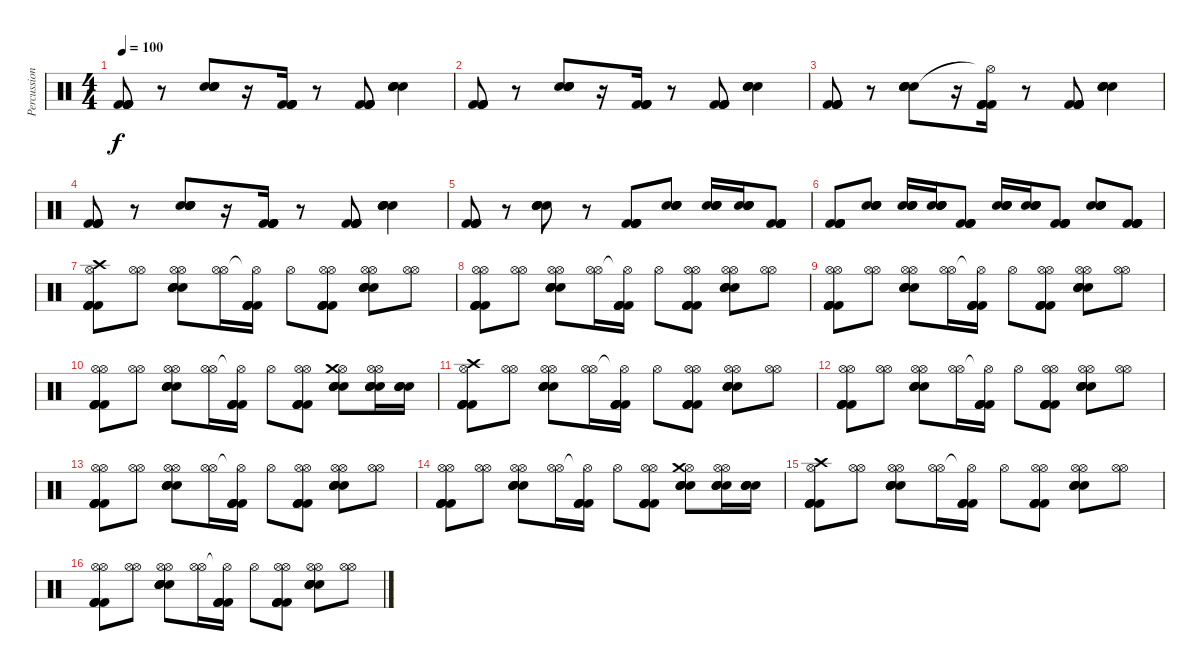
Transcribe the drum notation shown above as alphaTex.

\track ("Percussion" "Percussion") {instrument percussion}
\staff {score}
\articulation defaults
\ts (4 4)
\tempo 100
\clef neutral
\ks c
("Kick (hit) 2" "Kick (hit) 2" "Kick (hit) 2" "Kick (hit) 2").8{dy f} r.8 ("Electric Snare (hit)" "Electric Snare (hit)" "Electric Snare (hit)" "Electric Snare (hit)").8 r.16 ("Kick (hit) 2" "Kick (hit) 2" "Kick (hit) 2" "Kick (hit) 2").16 r.8 ("Kick (hit) 2" "Kick (hit) 2" "Kick (hit) 2" "Kick (hit) 2").8 ("Electric Snare (hit)" "Electric Snare (hit)" "Electric Snare (hit)" "Electric Snare (hit)").4 |
("Kick (hit) 2" "Kick (hit) 2" "Kick (hit) 2" "Kick (hit) 2").8 r.8 ("Electric Snare (hit)" "Electric Snare (hit)" "Electric Snare (hit)" "Electric Snare (hit)").8 r.16 ("Kick (hit) 2" "Kick (hit) 2" "Kick (hit) 2" "Kick (hit) 2").16 r.8 ("Kick (hit) 2" "Kick (hit) 2" "Kick (hit) 2" "Kick (hit) 2").8 ("Electric Snare (hit)" "Electric Snare (hit)" "Electric Snare (hit)" "Electric Snare (hit)").4 |
("Kick (hit) 2" "Kick (hit) 2" "Kick (hit) 2" "Kick (hit) 2").8 r.8 ("Electric Snare (hit)" "Electric Snare (hit)" "Electric Snare (hit)" "Electric Snare (hit)").8 r.16 ("Hi-Hat (open)"{t} "Kick (hit) 2" "Kick (hit) 2" "Kick (hit) 2" "Kick (hit) 2").16 r.8 ("Kick (hit) 2" "Kick (hit) 2" "Kick (hit) 2" "Kick (hit) 2").8 ("Electric Snare (hit)" "Electric Snare (hit)" "Electric Snare (hit)" "Electric Snare (hit)").4 |
("Kick (hit) 2" "Kick (hit) 2" "Kick (hit) 2" "Kick (hit) 2").8 r.8 ("Electric Snare (hit)" "Electric Snare (hit)" "Electric Snare (hit)" "Electric Snare (hit)").8 r.16 ("Kick (hit) 2" "Kick (hit) 2" "Kick (hit) 2" "Kick (hit) 2").16 r.8 ("Kick (hit) 2" "Kick (hit) 2" "Kick (hit) 2" "Kick (hit) 2").8 ("Electric Snare (hit)" "Electric Snare (hit)" "Electric Snare (hit)" "Electric Snare (hit)").4 |
("Kick (hit) 2" "Kick (hit) 2" "Kick (hit) 2" "Kick (hit) 2").8 r.8 ("Electric Snare (hit)" "Electric Snare (hit)" "Electric Snare (hit)" "Electric Snare (hit)").8 r.8 ("Kick (hit) 2" "Kick (hit) 2" "Kick (hit) 2" "Kick (hit) 2").8 ("Electric Snare (hit)" "Electric Snare (hit)" "Electric Snare (hit)" "Electric Snare (hit)").8 ("Electric Snare (hit)" "Electric Snare (hit)" "Electric Snare (hit)" "Electric Snare (hit)").16 ("Electric Snare (hit)" "Electric Snare (hit)" "Electric Snare (hit)" "Electric Snare (hit)").16 ("Kick (hit) 2" "Kick (hit) 2" "Kick (hit) 2" "Kick (hit) 2").8 |
("Kick (hit) 2" "Kick (hit) 2" "Kick (hit) 2" "Kick (hit) 2").8 ("Electric Snare (hit)" "Electric Snare (hit)" "Electric Snare (hit)" "Electric Snare (hit)").8 ("Electric Snare (hit)" "Electric Snare (hit)" "Electric Snare (hit)" "Electric Snare (hit)").16 ("Electric Snare (hit)" "Electric Snare (hit)" "Electric Snare (hit)" "Electric Snare (hit)").16 ("Kick (hit) 2" "Kick (hit) 2" "Kick (hit) 2" "Kick (hit) 2").8 ("Electric Snare (hit)" "Electric Snare (hit)" "Electric Snare (hit)" "Electric Snare (hit)").16 ("Electric Snare (hit)" "Electric Snare (hit)" "Electric Snare (hit)" "Electric Snare (hit)").16 ("Kick (hit) 2" "Kick (hit) 2" "Kick (hit) 2" "Kick (hit) 2").8 ("Electric Snare (hit)" "Electric Snare (hit)" "Electric Snare (hit)" "Electric Snare (hit)").8 ("Kick (hit) 2" "Kick (hit) 2" "Kick (hit) 2" "Kick (hit) 2").8 |
("Hi-Hat (open)" "Kick (hit) 2" "Kick (hit) 2" "Kick (hit) 2" "Kick (hit) 2" "Crash high (hit)").8 ("Hi-Hat (open)" "Hi-Hat (open)").8 ("Hi-Hat (open)" "Electric Snare (hit)" "Electric Snare (hit)" "Electric Snare (hit)" "Electric Snare (hit)" "Hi-Hat (open)").8 ("Hi-Hat (open)" "Hi-Hat (open)").16 ("Hi-Hat (open)"{t} "Kick (hit) 2" "Kick (hit) 2" "Kick (hit) 2" "Kick (hit) 2").16 "Hi-Hat (open)".8 ("Hi-Hat (open)" "Kick (hit) 2" "Kick (hit) 2" "Kick (hit) 2" "Kick (hit) 2" "Hi-Hat (open)").8 ("Hi-Hat (open)" "Electric Snare (hit)" "Electric Snare (hit)" "Electric Snare (hit)" "Electric Snare (hit)" "Hi-Hat (open)").8 ("Hi-Hat (open)" "Hi-Hat (open)").8 |
("Hi-Hat (open)" "Kick (hit) 2" "Kick (hit) 2" "Kick (hit) 2" "Kick (hit) 2" "Hi-Hat (open)").8 ("Hi-Hat (open)" "Hi-Hat (open)").8 ("Hi-Hat (open)" "Electric Snare (hit)" "Electric Snare (hit)" "Electric Snare (hit)" "Electric Snare (hit)" "Hi-Hat (open)").8 ("Hi-Hat (open)" "Hi-Hat (open)").16 ("Hi-Hat (open)"{t} "Kick (hit) 2" "Kick (hit) 2" "Kick (hit) 2" "Kick (hit) 2").16 "Hi-Hat (open)".8 ("Hi-Hat (open)" "Kick (hit) 2" "Kick (hit) 2" "Kick (hit) 2" "Kick (hit) 2" "Hi-Hat (open)").8 ("Hi-Hat (open)" "Electric Snare (hit)" "Electric Snare (hit)" "Electric Snare (hit)" "Electric Snare (hit)" "Hi-Hat (open)").8 ("Hi-Hat (open)" "Hi-Hat (open)").8 |
("Hi-Hat (open)" "Kick (hit) 2" "Kick (hit) 2" "Kick (hit) 2" "Kick (hit) 2" "Hi-Hat (open)").8 ("Hi-Hat (open)" "Hi-Hat (open)").8 ("Hi-Hat (open)" "Electric Snare (hit)" "Electric Snare (hit)" "Electric Snare (hit)" "Electric Snare (hit)" "Hi-Hat (open)").8 ("Hi-Hat (open)" "Hi-Hat (open)").16 ("Hi-Hat (open)"{t} "Kick (hit) 2" "Kick (hit) 2" "Kick (hit) 2" "Kick (hit) 2").16 "Hi-Hat (open)".8 ("Hi-Hat (open)" "Kick (hit) 2" "Kick (hit) 2" "Kick (hit) 2" "Kick (hit) 2" "Hi-Hat (open)").8 ("Hi-Hat (open)" "Electric Snare (hit)" "Electric Snare (hit)" "Electric Snare (hit)" "Electric Snare (hit)" "Hi-Hat (open)").8 ("Hi-Hat (open)" "Hi-Hat (open)").8 |
("Hi-Hat (open)" "Kick (hit) 2" "Kick (hit) 2" "Kick (hit) 2" "Kick (hit) 2" "Hi-Hat (open)").8 ("Hi-Hat (open)" "Hi-Hat (open)").8 ("Hi-Hat (open)" "Electric Snare (hit)" "Electric Snare (hit)" "Electric Snare (hit)" "Electric Snare (hit)" "Hi-Hat (open)").8 ("Hi-Hat (open)" "Hi-Hat (open)").16 ("Hi-Hat (open)"{t} "Kick (hit) 2" "Kick (hit) 2" "Kick (hit) 2" "Kick (hit) 2").16 "Hi-Hat (open)".8 ("Hi-Hat (open)" "Kick (hit) 2" "Kick (hit) 2" "Kick (hit) 2" "Kick (hit) 2" "Hi-Hat (open)").8 ("Hi-Hat (open)" "Electric Snare (hit)" "Electric Snare (hit)" "Electric Snare (hit)" "Electric Snare (hit)" "Crash medium (hit)").8 ("Hi-Hat (open)" "Electric Snare (hit)" "Electric Snare (hit)" "Electric Snare (hit)" "Electric Snare (hit)" "Hi-Hat (open)").16 ("Electric Snare (hit)" "Electric Snare (hit)" "Electric Snare (hit)" "Electric Snare (hit)").16 |
("Hi-Hat (open)" "Kick (hit) 2" "Kick (hit) 2" "Kick (hit) 2" "Kick (hit) 2" "Crash high (hit)").8 ("Hi-Hat (open)" "Hi-Hat (open)").8 ("Hi-Hat (open)" "Electric Snare (hit)" "Electric Snare (hit)" "Electric Snare (hit)" "Electric Snare (hit)" "Hi-Hat (open)").8 ("Hi-Hat (open)" "Hi-Hat (open)").16 ("Hi-Hat (open)"{t} "Kick (hit) 2" "Kick (hit) 2" "Kick (hit) 2" "Kick (hit) 2").16 "Hi-Hat (open)".8 ("Hi-Hat (open)" "Kick (hit) 2" "Kick (hit) 2" "Kick (hit) 2" "Kick (hit) 2" "Hi-Hat (open)").8 ("Hi-Hat (open)" "Electric Snare (hit)" "Electric Snare (hit)" "Electric Snare (hit)" "Electric Snare (hit)" "Hi-Hat (open)").8 ("Hi-Hat (open)" "Hi-Hat (open)").8 |
("Hi-Hat (open)" "Kick (hit) 2" "Kick (hit) 2" "Kick (hit) 2" "Kick (hit) 2" "Hi-Hat (open)").8 ("Hi-Hat (open)" "Hi-Hat (open)").8 ("Hi-Hat (open)" "Electric Snare (hit)" "Electric Snare (hit)" "Electric Snare (hit)" "Electric Snare (hit)" "Hi-Hat (open)").8 ("Hi-Hat (open)" "Hi-Hat (open)").16 ("Hi-Hat (open)"{t} "Kick (hit) 2" "Kick (hit) 2" "Kick (hit) 2" "Kick (hit) 2").16 "Hi-Hat (open)".8 ("Hi-Hat (open)" "Kick (hit) 2" "Kick (hit) 2" "Kick (hit) 2" "Kick (hit) 2" "Hi-Hat (open)").8 ("Hi-Hat (open)" "Electric Snare (hit)" "Electric Snare (hit)" "Electric Snare (hit)" "Electric Snare (hit)" "Hi-Hat (open)").8 ("Hi-Hat (open)" "Hi-Hat (open)").8 |
("Hi-Hat (open)" "Kick (hit) 2" "Kick (hit) 2" "Kick (hit) 2" "Kick (hit) 2" "Hi-Hat (open)").8 ("Hi-Hat (open)" "Hi-Hat (open)").8 ("Hi-Hat (open)" "Electric Snare (hit)" "Electric Snare (hit)" "Electric Snare (hit)" "Electric Snare (hit)" "Hi-Hat (open)").8 ("Hi-Hat (open)" "Hi-Hat (open)").16 ("Hi-Hat (open)"{t} "Kick (hit) 2" "Kick (hit) 2" "Kick (hit) 2" "Kick (hit) 2").16 "Hi-Hat (open)".8 ("Hi-Hat (open)" "Kick (hit) 2" "Kick (hit) 2" "Kick (hit) 2" "Kick (hit) 2" "Hi-Hat (open)").8 ("Hi-Hat (open)" "Electric Snare (hit)" "Electric Snare (hit)" "Electric Snare (hit)" "Electric Snare (hit)" "Hi-Hat (open)").8 ("Hi-Hat (open)" "Hi-Hat (open)").8 |
("Hi-Hat (open)" "Kick (hit) 2" "Kick (hit) 2" "Kick (hit) 2" "Kick (hit) 2" "Hi-Hat (open)").8 ("Hi-Hat (open)" "Hi-Hat (open)").8 ("Hi-Hat (open)" "Electric Snare (hit)" "Electric Snare (hit)" "Electric Snare (hit)" "Electric Snare (hit)" "Hi-Hat (open)").8 ("Hi-Hat (open)" "Hi-Hat (open)").16 ("Hi-Hat (open)"{t} "Kick (hit) 2" "Kick (hit) 2" "Kick (hit) 2" "Kick (hit) 2").16 "Hi-Hat (open)".8 ("Hi-Hat (open)" "Kick (hit) 2" "Kick (hit) 2" "Kick (hit) 2" "Kick (hit) 2" "Hi-Hat (open)").8 ("Hi-Hat (open)" "Electric Snare (hit)" "Electric Snare (hit)" "Electric Snare (hit)" "Electric Snare (hit)" "Crash medium (hit)").8 ("Hi-Hat (open)" "Electric Snare (hit)" "Electric Snare (hit)" "Electric Snare (hit)" "Electric Snare (hit)" "Hi-Hat (open)").16 ("Electric Snare (hit)" "Electric Snare (hit)" "Electric Snare (hit)" "Electric Snare (hit)").16 |
("Hi-Hat (open)" "Kick (hit) 2" "Kick (hit) 2" "Kick (hit) 2" "Kick (hit) 2" "Crash high (hit)").8 ("Hi-Hat (open)" "Hi-Hat (open)").8 ("Hi-Hat (open)" "Electric Snare (hit)" "Electric Snare (hit)" "Electric Snare (hit)" "Electric Snare (hit)" "Hi-Hat (open)").8 ("Hi-Hat (open)" "Hi-Hat (open)").16 ("Hi-Hat (open)"{t} "Kick (hit) 2" "Kick (hit) 2" "Kick (hit) 2" "Kick (hit) 2").16 "Hi-Hat (open)".8 ("Hi-Hat (open)" "Kick (hit) 2" "Kick (hit) 2" "Kick (hit) 2" "Kick (hit) 2" "Hi-Hat (open)").8 ("Hi-Hat (open)" "Electric Snare (hit)" "Electric Snare (hit)" "Electric Snare (hit)" "Electric Snare (hit)" "Hi-Hat (open)").8 ("Hi-Hat (open)" "Hi-Hat (open)").8 |
("Hi-Hat (open)" "Kick (hit) 2" "Kick (hit) 2" "Kick (hit) 2" "Kick (hit) 2" "Hi-Hat (open)").8 ("Hi-Hat (open)" "Hi-Hat (open)").8 ("Hi-Hat (open)" "Electric Snare (hit)" "Electric Snare (hit)" "Electric Snare (hit)" "Electric Snare (hit)" "Hi-Hat (open)").8 ("Hi-Hat (open)" "Hi-Hat (open)").16 ("Hi-Hat (open)"{t} "Kick (hit) 2" "Kick (hit) 2" "Kick (hit) 2" "Kick (hit) 2").16 "Hi-Hat (open)".8 ("Hi-Hat (open)" "Kick (hit) 2" "Kick (hit) 2" "Kick (hit) 2" "Kick (hit) 2" "Hi-Hat (open)").8 ("Hi-Hat (open)" "Electric Snare (hit)" "Electric Snare (hit)" "Electric Snare (hit)" "Electric Snare (hit)" "Hi-Hat (open)").8 ("Hi-Hat (open)" "Hi-Hat (open)").8
